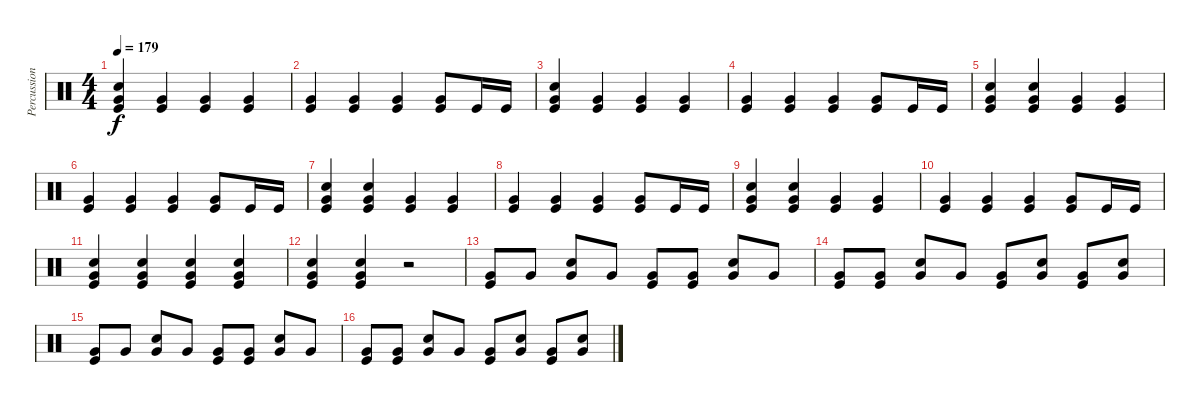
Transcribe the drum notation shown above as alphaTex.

\track ("Percussion" "Percussion") {instrument percussion}
\staff {score}
\articulation defaults
\ts (4 4)
\tempo 179
\clef neutral
\ks c
("Kick (hit)" "Snare (hit) 2" "Very Low Tom (hit)").4{dy f} ("Kick (hit)" "Very Low Tom (hit)").4 ("Kick (hit)" "Very Low Tom (hit)").4 ("Kick (hit)" "Very Low Tom (hit)").4 |
("Kick (hit)" "Very Low Tom (hit)").4 ("Kick (hit)" "Very Low Tom (hit)").4 ("Kick (hit)" "Very Low Tom (hit)").4 ("Kick (hit)" "Very Low Tom (hit)").8 "Kick (hit)".16 "Kick (hit)".16 |
("Kick (hit)" "Snare (hit) 2" "Very Low Tom (hit)").4 ("Kick (hit)" "Very Low Tom (hit)").4 ("Kick (hit)" "Very Low Tom (hit)").4 ("Kick (hit)" "Very Low Tom (hit)").4 |
("Kick (hit)" "Very Low Tom (hit)").4 ("Kick (hit)" "Very Low Tom (hit)").4 ("Kick (hit)" "Very Low Tom (hit)").4 ("Kick (hit)" "Very Low Tom (hit)").8 "Kick (hit)".16 "Kick (hit)".16 |
("Kick (hit)" "Snare (hit) 2" "Very Low Tom (hit)").4 ("Kick (hit)" "Snare (hit) 2" "Very Low Tom (hit)").4 ("Kick (hit)" "Very Low Tom (hit)").4 ("Kick (hit)" "Very Low Tom (hit)").4 |
("Kick (hit)" "Very Low Tom (hit)").4 ("Kick (hit)" "Very Low Tom (hit)").4 ("Kick (hit)" "Very Low Tom (hit)").4 ("Kick (hit)" "Very Low Tom (hit)").8 "Kick (hit)".16 "Kick (hit)".16 |
("Kick (hit)" "Snare (hit) 2" "Very Low Tom (hit)").4 ("Kick (hit)" "Snare (hit) 2" "Very Low Tom (hit)").4 ("Kick (hit)" "Very Low Tom (hit)").4 ("Kick (hit)" "Very Low Tom (hit)").4 |
("Kick (hit)" "Very Low Tom (hit)").4 ("Kick (hit)" "Very Low Tom (hit)").4 ("Kick (hit)" "Very Low Tom (hit)").4 ("Kick (hit)" "Very Low Tom (hit)").8 "Kick (hit)".16 "Kick (hit)".16 |
("Kick (hit)" "Snare (hit) 2" "Very Low Tom (hit)").4 ("Kick (hit)" "Snare (hit) 2" "Very Low Tom (hit)").4 ("Kick (hit)" "Very Low Tom (hit)").4 ("Kick (hit)" "Very Low Tom (hit)").4 |
("Kick (hit)" "Very Low Tom (hit)").4 ("Kick (hit)" "Very Low Tom (hit)").4 ("Kick (hit)" "Very Low Tom (hit)").4 ("Kick (hit)" "Very Low Tom (hit)").8 "Kick (hit)".16 "Kick (hit)".16 |
("Kick (hit)" "Snare (hit) 2" "Very Low Tom (hit)").4 ("Kick (hit)" "Snare (hit) 2" "Very Low Tom (hit)").4 ("Kick (hit)" "Snare (hit) 2" "Very Low Tom (hit)").4 ("Kick (hit)" "Snare (hit) 2" "Very Low Tom (hit)").4 |
("Kick (hit)" "Snare (hit) 2" "Very Low Tom (hit)").4 ("Kick (hit)" "Snare (hit) 2" "Very Low Tom (hit)").4 r.2 |
("Kick (hit)" "Very Low Tom (hit)").8 "Very Low Tom (hit)".8 ("Snare (hit) 2" "Very Low Tom (hit)").8 "Very Low Tom (hit)".8 ("Kick (hit)" "Very Low Tom (hit)").8 ("Kick (hit)" "Very Low Tom (hit)").8 ("Snare (hit) 2" "Very Low Tom (hit)").8 "Very Low Tom (hit)".8 |
("Kick (hit)" "Very Low Tom (hit)").8 ("Kick (hit)" "Very Low Tom (hit)").8 ("Snare (hit) 2" "Very Low Tom (hit)").8 "Very Low Tom (hit)".8 ("Kick (hit)" "Very Low Tom (hit)").8 ("Snare (hit) 2" "Very Low Tom (hit)").8 ("Kick (hit)" "Very Low Tom (hit)").8 ("Snare (hit) 2" "Very Low Tom (hit)").8 |
("Kick (hit)" "Very Low Tom (hit)").8 "Very Low Tom (hit)".8 ("Snare (hit) 2" "Very Low Tom (hit)").8 "Very Low Tom (hit)".8 ("Kick (hit)" "Very Low Tom (hit)").8 ("Kick (hit)" "Very Low Tom (hit)").8 ("Snare (hit) 2" "Very Low Tom (hit)").8 "Very Low Tom (hit)".8 |
("Kick (hit)" "Very Low Tom (hit)").8 ("Kick (hit)" "Very Low Tom (hit)").8 ("Snare (hit) 2" "Very Low Tom (hit)").8 "Very Low Tom (hit)".8 ("Kick (hit)" "Very Low Tom (hit)").8 ("Snare (hit) 2" "Very Low Tom (hit)").8 ("Kick (hit)" "Very Low Tom (hit)").8 ("Snare (hit) 2" "Very Low Tom (hit)").8
